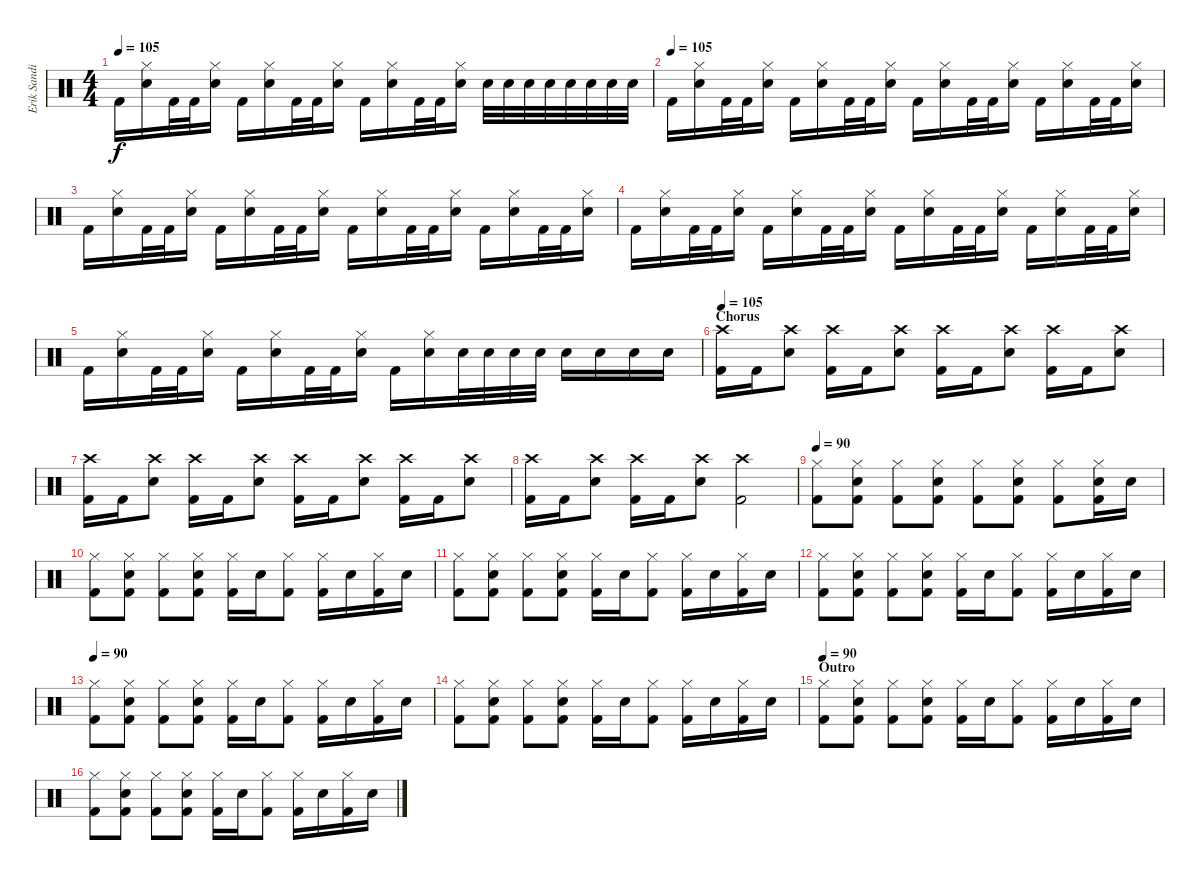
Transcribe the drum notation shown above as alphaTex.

\track ("Erik Sandin" "Erik Sandi") {instrument percussion}
\staff {score}
\articulation defaults
\ts (4 4)
\tempo 105
\clef neutral
\ks c "Kick (hit) 2".16{dy f}
("Hi-Hat (closed)" "Electric Snare (hit)").16 "Kick (hit) 2".32 "Kick (hit) 2".32 ("Hi-Hat (closed)" "Electric Snare (hit)").16 "Kick (hit) 2".16 ("Hi-Hat (closed)" "Electric Snare (hit)").16 "Kick (hit) 2".32 "Kick (hit) 2".32 ("Hi-Hat (closed)" "Electric Snare (hit)").16 "Kick (hit) 2".16 ("Hi-Hat (closed)" "Electric Snare (hit)").16 "Kick (hit) 2".32 "Kick (hit) 2".32 ("Hi-Hat (closed)" "Electric Snare (hit)").16 "Electric Snare (hit)".32 "Electric Snare (hit)".32 "Electric Snare (hit)".32 "Electric Snare (hit)".32 "Electric Snare (hit)".32 "Electric Snare (hit)".32 "Electric Snare (hit)".32 "Electric Snare (hit)".32 |
\tempo (105)
"Kick (hit) 2".16 ("Hi-Hat (closed)" "Electric Snare (hit)").16 "Kick (hit) 2".32 "Kick (hit) 2".32 ("Hi-Hat (closed)" "Electric Snare (hit)").16 "Kick (hit) 2".16 ("Hi-Hat (closed)" "Electric Snare (hit)").16 "Kick (hit) 2".32 "Kick (hit) 2".32 ("Hi-Hat (closed)" "Electric Snare (hit)").16 "Kick (hit) 2".16 ("Hi-Hat (closed)" "Electric Snare (hit)").16 "Kick (hit) 2".32 "Kick (hit) 2".32 ("Hi-Hat (closed)" "Electric Snare (hit)").16 "Kick (hit) 2".16 ("Hi-Hat (closed)" "Electric Snare (hit)").16 "Kick (hit) 2".32 "Kick (hit) 2".32 ("Hi-Hat (closed)" "Electric Snare (hit)").16 |
"Kick (hit) 2".16 ("Hi-Hat (closed)" "Electric Snare (hit)").16 "Kick (hit) 2".32 "Kick (hit) 2".32 ("Hi-Hat (closed)" "Electric Snare (hit)").16 "Kick (hit) 2".16 ("Hi-Hat (closed)" "Electric Snare (hit)").16 "Kick (hit) 2".32 "Kick (hit) 2".32 ("Hi-Hat (closed)" "Electric Snare (hit)").16 "Kick (hit) 2".16 ("Hi-Hat (closed)" "Electric Snare (hit)").16 "Kick (hit) 2".32 "Kick (hit) 2".32 ("Hi-Hat (closed)" "Electric Snare (hit)").16 "Kick (hit) 2".16 ("Hi-Hat (closed)" "Electric Snare (hit)").16 "Kick (hit) 2".32 "Kick (hit) 2".32 ("Hi-Hat (closed)" "Electric Snare (hit)").16 |
"Kick (hit) 2".16 ("Hi-Hat (closed)" "Electric Snare (hit)").16 "Kick (hit) 2".32 "Kick (hit) 2".32 ("Hi-Hat (closed)" "Electric Snare (hit)").16 "Kick (hit) 2".16 ("Hi-Hat (closed)" "Electric Snare (hit)").16 "Kick (hit) 2".32 "Kick (hit) 2".32 ("Hi-Hat (closed)" "Electric Snare (hit)").16 "Kick (hit) 2".16 ("Hi-Hat (closed)" "Electric Snare (hit)").16 "Kick (hit) 2".32 "Kick (hit) 2".32 ("Hi-Hat (closed)" "Electric Snare (hit)").16 "Kick (hit) 2".16 ("Hi-Hat (closed)" "Electric Snare (hit)").16 "Kick (hit) 2".32 "Kick (hit) 2".32 ("Hi-Hat (closed)" "Electric Snare (hit)").16 |
"Kick (hit) 2".16 ("Hi-Hat (closed)" "Electric Snare (hit)").16 "Kick (hit) 2".32 "Kick (hit) 2".32 ("Hi-Hat (closed)" "Electric Snare (hit)").16 "Kick (hit) 2".16 ("Hi-Hat (closed)" "Electric Snare (hit)").16 "Kick (hit) 2".32 "Kick (hit) 2".32 ("Hi-Hat (closed)" "Electric Snare (hit)").16 "Kick (hit) 2".16 ("Hi-Hat (closed)" "Electric Snare (hit)").16 "Electric Snare (hit)".32 "Electric Snare (hit)".32 "Electric Snare (hit)".32 "Electric Snare (hit)".32 "Electric Snare (hit)".16 "Electric Snare (hit)".16 "Electric Snare (hit)".16 "Electric Snare (hit)".16 |
\section ("" "Chorus")
\tempo 105
("Crash high (hit)" "Kick (hit) 2").16 "Kick (hit) 2".16 ("Crash high (hit)" "Electric Snare (hit)").8 ("Crash high (hit)" "Kick (hit) 2").16 "Kick (hit) 2".16 ("Crash high (hit)" "Electric Snare (hit)").8 ("Crash high (hit)" "Kick (hit) 2").16 "Kick (hit) 2".16 ("Crash high (hit)" "Electric Snare (hit)").8 ("Crash high (hit)" "Kick (hit) 2").16 "Kick (hit) 2".16 ("Crash high (hit)" "Electric Snare (hit)").8 |
("Crash high (hit)" "Kick (hit) 2").16 "Kick (hit) 2".16 ("Crash high (hit)" "Electric Snare (hit)").8 ("Crash high (hit)" "Kick (hit) 2").16 "Kick (hit) 2".16 ("Crash high (hit)" "Electric Snare (hit)").8 ("Crash high (hit)" "Kick (hit) 2").16 "Kick (hit) 2".16 ("Crash high (hit)" "Electric Snare (hit)").8 ("Crash high (hit)" "Kick (hit) 2").16 "Kick (hit) 2".16 ("Crash high (hit)" "Electric Snare (hit)").8 |
("Crash high (hit)" "Kick (hit) 2").16 "Kick (hit) 2".16 ("Crash high (hit)" "Electric Snare (hit)").8 ("Crash high (hit)" "Kick (hit) 2").16 "Kick (hit) 2".16 ("Crash high (hit)" "Electric Snare (hit)").8 ("Crash high (hit)" "Kick (hit) 2").2 |
\tempo 90
("Hi-Hat (closed)" "Kick (hit) 2").8 ("Hi-Hat (closed)" "Electric Snare (hit)" "Kick (hit) 2").8 ("Hi-Hat (closed)" "Kick (hit) 2").8 ("Hi-Hat (closed)" "Electric Snare (hit)" "Kick (hit) 2").8 ("Hi-Hat (closed)" "Kick (hit) 2").8 ("Hi-Hat (closed)" "Electric Snare (hit)" "Kick (hit) 2").8 ("Hi-Hat (closed)" "Kick (hit) 2").8 ("Hi-Hat (closed)" "Electric Snare (hit)" "Kick (hit) 2").16 "Electric Snare (hit)".16 |
("Hi-Hat (closed)" "Kick (hit) 2").8 ("Hi-Hat (closed)" "Electric Snare (hit)" "Kick (hit) 2").8 ("Hi-Hat (closed)" "Kick (hit) 2").8 ("Hi-Hat (closed)" "Electric Snare (hit)" "Kick (hit) 2").8 ("Hi-Hat (closed)" "Kick (hit) 2").16 "Electric Snare (hit)".16 ("Hi-Hat (closed)" "Kick (hit) 2").8 ("Hi-Hat (closed)" "Kick (hit) 2").16 "Electric Snare (hit)".16 ("Hi-Hat (closed)" "Kick (hit) 2").16 "Electric Snare (hit)".16 |
("Hi-Hat (closed)" "Kick (hit) 2").8 ("Hi-Hat (closed)" "Electric Snare (hit)" "Kick (hit) 2").8 ("Hi-Hat (closed)" "Kick (hit) 2").8 ("Hi-Hat (closed)" "Electric Snare (hit)" "Kick (hit) 2").8 ("Hi-Hat (closed)" "Kick (hit) 2").16 "Electric Snare (hit)".16 ("Hi-Hat (closed)" "Kick (hit) 2").8 ("Hi-Hat (closed)" "Kick (hit) 2").16 "Electric Snare (hit)".16 ("Hi-Hat (closed)" "Kick (hit) 2").16 "Electric Snare (hit)".16 |
("Hi-Hat (closed)" "Kick (hit) 2").8 ("Hi-Hat (closed)" "Electric Snare (hit)" "Kick (hit) 2").8 ("Hi-Hat (closed)" "Kick (hit) 2").8 ("Hi-Hat (closed)" "Electric Snare (hit)" "Kick (hit) 2").8 ("Hi-Hat (closed)" "Kick (hit) 2").16 "Electric Snare (hit)".16 ("Hi-Hat (closed)" "Kick (hit) 2").8 ("Hi-Hat (closed)" "Kick (hit) 2").16 "Electric Snare (hit)".16 ("Hi-Hat (closed)" "Kick (hit) 2").16 "Electric Snare (hit)".16 |
\tempo 90
("Hi-Hat (closed)" "Kick (hit) 2").8 ("Hi-Hat (closed)" "Electric Snare (hit)" "Kick (hit) 2").8 ("Hi-Hat (closed)" "Kick (hit) 2").8 ("Hi-Hat (closed)" "Electric Snare (hit)" "Kick (hit) 2").8 ("Hi-Hat (closed)" "Kick (hit) 2").16 "Electric Snare (hit)".16 ("Hi-Hat (closed)" "Kick (hit) 2").8 ("Hi-Hat (closed)" "Kick (hit) 2").16 "Electric Snare (hit)".16 ("Hi-Hat (closed)" "Kick (hit) 2").16 "Electric Snare (hit)".16 |
("Hi-Hat (closed)" "Kick (hit) 2").8 ("Hi-Hat (closed)" "Electric Snare (hit)" "Kick (hit) 2").8 ("Hi-Hat (closed)" "Kick (hit) 2").8 ("Hi-Hat (closed)" "Electric Snare (hit)" "Kick (hit) 2").8 ("Hi-Hat (closed)" "Kick (hit) 2").16 "Electric Snare (hit)".16 ("Hi-Hat (closed)" "Kick (hit) 2").8 ("Hi-Hat (closed)" "Kick (hit) 2").16 "Electric Snare (hit)".16 ("Hi-Hat (closed)" "Kick (hit) 2").16 "Electric Snare (hit)".16 |
\section ("" "Outro")
\tempo 90
("Hi-Hat (closed)" "Kick (hit) 2").8 ("Hi-Hat (closed)" "Electric Snare (hit)" "Kick (hit) 2").8 ("Hi-Hat (closed)" "Kick (hit) 2").8 ("Hi-Hat (closed)" "Electric Snare (hit)" "Kick (hit) 2").8 ("Hi-Hat (closed)" "Kick (hit) 2").16 "Electric Snare (hit)".16 ("Hi-Hat (closed)" "Kick (hit) 2").8 ("Hi-Hat (closed)" "Kick (hit) 2").16 "Electric Snare (hit)".16 ("Hi-Hat (closed)" "Kick (hit) 2").16 "Electric Snare (hit)".16 |
("Hi-Hat (closed)" "Kick (hit) 2").8 ("Hi-Hat (closed)" "Electric Snare (hit)" "Kick (hit) 2").8 ("Hi-Hat (closed)" "Kick (hit) 2").8 ("Hi-Hat (closed)" "Electric Snare (hit)" "Kick (hit) 2").8 ("Hi-Hat (closed)" "Kick (hit) 2").16 "Electric Snare (hit)".16 ("Hi-Hat (closed)" "Kick (hit) 2").8 ("Hi-Hat (closed)" "Kick (hit) 2").16 "Electric Snare (hit)".16 ("Hi-Hat (closed)" "Kick (hit) 2").16 "Electric Snare (hit)".16
